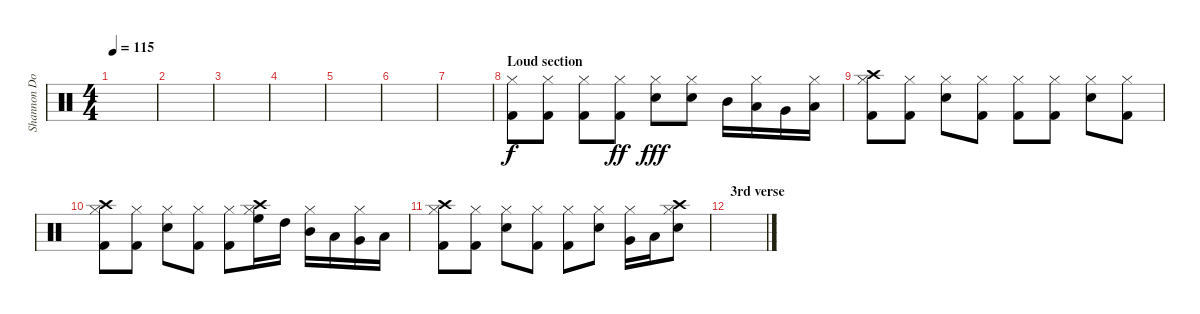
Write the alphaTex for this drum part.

\track ("Shannon Doughton ( drums )" "Shannon Do") {instrument percussion}
\staff {score}
\articulation defaults
\ts (4 4)
\tempo 115
\clef neutral
\ks c
|
|
|
|
|
|
|
\section ("" "Loud section")
("Hi-Hat (closed)" "Kick (hit) 2").8 ("Hi-Hat (closed)" "Kick (hit) 2").8 ("Hi-Hat (closed)" "Kick (hit) 2").8{dy f} ("Hi-Hat (closed)" "Kick (hit) 2").8{dy ff} ("Hi-Hat (closed)" "Snare (hit) 2").8{dy fff} ("Hi-Hat (closed)" "Snare (hit) 2").8 "Mid Tom (hit)".16 ("Hi-Hat (closed)" "Low Tom (hit)").16 "Very Low Tom (hit)".16 ("Hi-Hat (closed)" "Low Floor Tom (hit)").16 |
("Crash high (hit)" "Hi-Hat (closed)" "Kick (hit) 2").8 ("Hi-Hat (closed)" "Kick (hit) 2").8 ("Hi-Hat (closed)" "Snare (hit) 2").8 ("Hi-Hat (closed)" "Kick (hit) 2").8 ("Hi-Hat (closed)" "Kick (hit) 2").8 ("Hi-Hat (closed)" "Kick (hit) 2").8 ("Hi-Hat (closed)" "Snare (hit) 2").8 ("Hi-Hat (closed)" "Kick (hit) 2").8 |
("Crash high (hit)" "Hi-Hat (closed)" "Kick (hit) 2").8 ("Hi-Hat (closed)" "Kick (hit) 2").8 ("Hi-Hat (closed)" "Snare (hit) 2").8 ("Hi-Hat (closed)" "Kick (hit) 2").8 ("Hi-Hat (closed)" "Kick (hit) 2").8 ("Crash high (hit)" "Hi-Hat (closed)" "High Floor Tom (hit)").16 "High Tom (hit)".16 ("Hi-Hat (closed)" "Mid Tom (hit)").16 "Low Tom (hit)".16 ("Hi-Hat (closed)" "Very Low Tom (hit)").16 "Low Floor Tom (hit)".16 |
("Crash high (hit)" "Hi-Hat (closed)" "Kick (hit) 2").8 ("Hi-Hat (closed)" "Kick (hit) 2").8 ("Hi-Hat (closed)" "Snare (hit) 2").8 ("Hi-Hat (closed)" "Kick (hit) 2").8 ("Hi-Hat (closed)" "Kick (hit) 2").8 ("Hi-Hat (closed)" "Snare (hit) 2").8 ("Hi-Hat (closed)" "Very Low Tom (hit)").16 "Low Floor Tom (hit)".16 ("Crash high (hit)" "Hi-Hat (closed)" "Snare (hit) 2").8 |
\section ("" "3rd verse")
